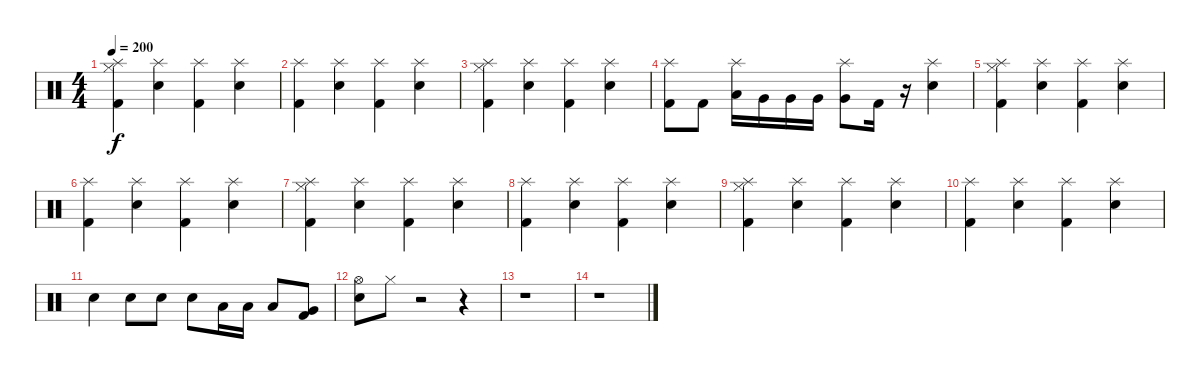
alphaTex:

\track "" {instrument percussion}
\staff {score}
\articulation defaults
\ts (4 4)
\tempo 200
\clef neutral
\ks c
("Splash (hit)" "Hi-Hat (closed)" "Kick (hit) 2").4{dy f} ("Splash (hit)" "Electric Snare (hit)").4 ("Splash (hit)" "Kick (hit) 2").4 ("Splash (hit)" "Electric Snare (hit)").4 |
("Splash (hit)" "Kick (hit) 2").4 ("Splash (hit)" "Electric Snare (hit)").4 ("Splash (hit)" "Kick (hit) 2").4 ("Splash (hit)" "Electric Snare (hit)").4 |
("Splash (hit)" "Hi-Hat (closed)" "Kick (hit) 2").4 ("Splash (hit)" "Electric Snare (hit)").4 ("Splash (hit)" "Kick (hit) 2").4 ("Splash (hit)" "Electric Snare (hit)").4 |
("Splash (hit)" "Kick (hit) 2").8 "Kick (hit) 2".8 ("Splash (hit)" "Low Tom (hit)").16 "Very Low Tom (hit)".16 "Very Low Tom (hit)".16 "Very Low Tom (hit)".16 ("Splash (hit)" "Very Low Tom (hit)").8 "Kick (hit) 2".16 r.16 ("Splash (hit)" "Electric Snare (hit)").4 |
("Splash (hit)" "Hi-Hat (closed)" "Kick (hit) 2").4 ("Splash (hit)" "Electric Snare (hit)").4 ("Splash (hit)" "Kick (hit) 2").4 ("Splash (hit)" "Electric Snare (hit)").4 |
("Splash (hit)" "Kick (hit) 2").4 ("Splash (hit)" "Electric Snare (hit)").4 ("Splash (hit)" "Kick (hit) 2").4 ("Splash (hit)" "Electric Snare (hit)").4 |
("Splash (hit)" "Hi-Hat (closed)" "Kick (hit) 2").4 ("Splash (hit)" "Electric Snare (hit)").4 ("Splash (hit)" "Kick (hit) 2").4 ("Splash (hit)" "Electric Snare (hit)").4 |
("Splash (hit)" "Kick (hit) 2").4 ("Splash (hit)" "Electric Snare (hit)").4 ("Splash (hit)" "Kick (hit) 2").4 ("Splash (hit)" "Electric Snare (hit)").4 |
("Splash (hit)" "Hi-Hat (closed)" "Kick (hit) 2").4 ("Splash (hit)" "Electric Snare (hit)").4 ("Splash (hit)" "Kick (hit) 2").4 ("Splash (hit)" "Electric Snare (hit)").4 |
("Splash (hit)" "Kick (hit) 2").4 ("Splash (hit)" "Electric Snare (hit)").4 ("Splash (hit)" "Kick (hit) 2").4 ("Splash (hit)" "Electric Snare (hit)").4 |
"Electric Snare (hit)".4 "Electric Snare (hit)".8 "Electric Snare (hit)".8 "Electric Snare (hit)".8 "Low Tom (hit)".16 "Low Tom (hit)".16 "Low Tom (hit)".8 ("Kick (hit) 2" "Very Low Tom (hit)").8 |
("Hi-Hat (open)" "Electric Snare (hit)").8 "Hi-Hat (closed)".8 r.2 r.4 |
r.1 |
r.1
